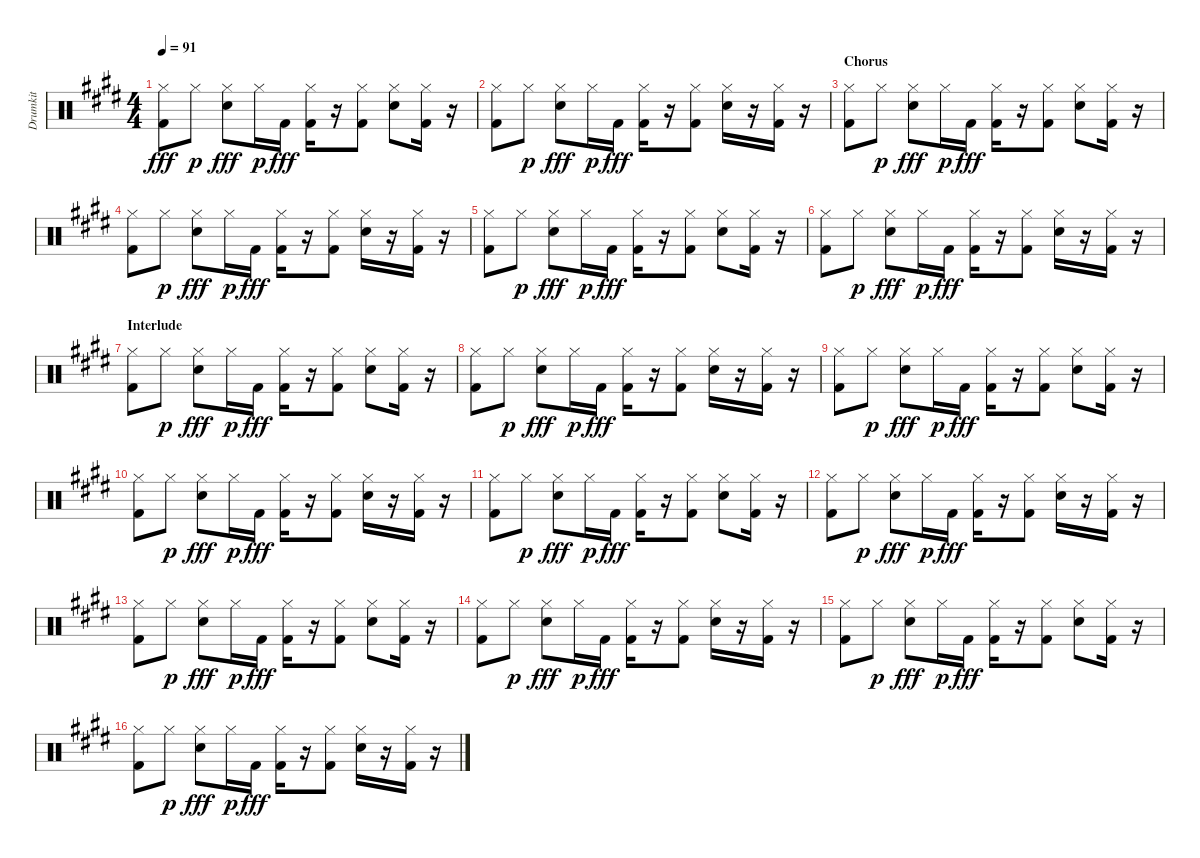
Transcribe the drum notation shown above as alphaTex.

\track ("Drumkit" "Drumkit") {instrument percussion}
\staff {score}
\articulation defaults
\ts (4 4)
\tempo 91
\clef neutral
\ks e
("Kick (hit) 2" "Hi-Hat (closed)").8{dy fff} "Hi-Hat (closed)".8{dy p} ("Snare (hit) 2" "Hi-Hat (closed)").8{dy fff} "Hi-Hat (closed)".16{dy p} "Kick (hit) 2".16{dy fff} ("Kick (hit) 2" "Hi-Hat (closed)").16 r.16 ("Kick (hit) 2" "Hi-Hat (closed)").8 ("Snare (hit) 2" "Hi-Hat (closed)").8 ("Kick (hit) 2" "Hi-Hat (closed)").16 r.16 |
("Kick (hit) 2" "Hi-Hat (closed)").8 "Hi-Hat (closed)".8{dy p} ("Snare (hit) 2" "Hi-Hat (closed)").8{dy fff} "Hi-Hat (closed)".16{dy p} "Kick (hit) 2".16{dy fff} ("Kick (hit) 2" "Hi-Hat (closed)").16 r.16 ("Kick (hit) 2" "Hi-Hat (closed)").8 ("Snare (hit) 2" "Hi-Hat (closed)").16 r.16 ("Kick (hit) 2" "Hi-Hat (closed)").16 r.16 |
\section ("" "Chorus")
("Kick (hit) 2" "Hi-Hat (closed)").8 "Hi-Hat (closed)".8{dy p} ("Snare (hit) 2" "Hi-Hat (closed)").8{dy fff} "Hi-Hat (closed)".16{dy p} "Kick (hit) 2".16{dy fff} ("Kick (hit) 2" "Hi-Hat (closed)").16 r.16 ("Kick (hit) 2" "Hi-Hat (closed)").8 ("Snare (hit) 2" "Hi-Hat (closed)").8 ("Kick (hit) 2" "Hi-Hat (closed)").16 r.16 |
("Kick (hit) 2" "Hi-Hat (closed)").8 "Hi-Hat (closed)".8{dy p} ("Snare (hit) 2" "Hi-Hat (closed)").8{dy fff} "Hi-Hat (closed)".16{dy p} "Kick (hit) 2".16{dy fff} ("Kick (hit) 2" "Hi-Hat (closed)").16 r.16 ("Kick (hit) 2" "Hi-Hat (closed)").8 ("Snare (hit) 2" "Hi-Hat (closed)").16 r.16 ("Kick (hit) 2" "Hi-Hat (closed)").16 r.16 |
("Kick (hit) 2" "Hi-Hat (closed)").8 "Hi-Hat (closed)".8{dy p} ("Snare (hit) 2" "Hi-Hat (closed)").8{dy fff} "Hi-Hat (closed)".16{dy p} "Kick (hit) 2".16{dy fff} ("Kick (hit) 2" "Hi-Hat (closed)").16 r.16 ("Kick (hit) 2" "Hi-Hat (closed)").8 ("Snare (hit) 2" "Hi-Hat (closed)").8 ("Kick (hit) 2" "Hi-Hat (closed)").16 r.16 |
("Kick (hit) 2" "Hi-Hat (closed)").8 "Hi-Hat (closed)".8{dy p} ("Snare (hit) 2" "Hi-Hat (closed)").8{dy fff} "Hi-Hat (closed)".16{dy p} "Kick (hit) 2".16{dy fff} ("Kick (hit) 2" "Hi-Hat (closed)").16 r.16 ("Kick (hit) 2" "Hi-Hat (closed)").8 ("Snare (hit) 2" "Hi-Hat (closed)").16 r.16 ("Kick (hit) 2" "Hi-Hat (closed)").16 r.16 |
\section ("" "Interlude")
("Kick (hit) 2" "Hi-Hat (closed)").8 "Hi-Hat (closed)".8{dy p} ("Snare (hit) 2" "Hi-Hat (closed)").8{dy fff} "Hi-Hat (closed)".16{dy p} "Kick (hit) 2".16{dy fff} ("Kick (hit) 2" "Hi-Hat (closed)").16 r.16 ("Kick (hit) 2" "Hi-Hat (closed)").8 ("Snare (hit) 2" "Hi-Hat (closed)").8 ("Kick (hit) 2" "Hi-Hat (closed)").16 r.16 |
("Kick (hit) 2" "Hi-Hat (closed)").8 "Hi-Hat (closed)".8{dy p} ("Snare (hit) 2" "Hi-Hat (closed)").8{dy fff} "Hi-Hat (closed)".16{dy p} "Kick (hit) 2".16{dy fff} ("Kick (hit) 2" "Hi-Hat (closed)").16 r.16 ("Kick (hit) 2" "Hi-Hat (closed)").8 ("Snare (hit) 2" "Hi-Hat (closed)").16 r.16 ("Kick (hit) 2" "Hi-Hat (closed)").16 r.16 |
("Kick (hit) 2" "Hi-Hat (closed)").8 "Hi-Hat (closed)".8{dy p} ("Snare (hit) 2" "Hi-Hat (closed)").8{dy fff} "Hi-Hat (closed)".16{dy p} "Kick (hit) 2".16{dy fff} ("Kick (hit) 2" "Hi-Hat (closed)").16 r.16 ("Kick (hit) 2" "Hi-Hat (closed)").8 ("Snare (hit) 2" "Hi-Hat (closed)").8 ("Kick (hit) 2" "Hi-Hat (closed)").16 r.16 |
("Kick (hit) 2" "Hi-Hat (closed)").8 "Hi-Hat (closed)".8{dy p} ("Snare (hit) 2" "Hi-Hat (closed)").8{dy fff} "Hi-Hat (closed)".16{dy p} "Kick (hit) 2".16{dy fff} ("Kick (hit) 2" "Hi-Hat (closed)").16 r.16 ("Kick (hit) 2" "Hi-Hat (closed)").8 ("Snare (hit) 2" "Hi-Hat (closed)").16 r.16 ("Kick (hit) 2" "Hi-Hat (closed)").16 r.16 |
("Kick (hit) 2" "Hi-Hat (closed)").8 "Hi-Hat (closed)".8{dy p} ("Snare (hit) 2" "Hi-Hat (closed)").8{dy fff} "Hi-Hat (closed)".16{dy p} "Kick (hit) 2".16{dy fff} ("Kick (hit) 2" "Hi-Hat (closed)").16 r.16 ("Kick (hit) 2" "Hi-Hat (closed)").8 ("Snare (hit) 2" "Hi-Hat (closed)").8 ("Kick (hit) 2" "Hi-Hat (closed)").16 r.16 |
("Kick (hit) 2" "Hi-Hat (closed)").8 "Hi-Hat (closed)".8{dy p} ("Snare (hit) 2" "Hi-Hat (closed)").8{dy fff} "Hi-Hat (closed)".16{dy p} "Kick (hit) 2".16{dy fff} ("Kick (hit) 2" "Hi-Hat (closed)").16 r.16 ("Kick (hit) 2" "Hi-Hat (closed)").8 ("Snare (hit) 2" "Hi-Hat (closed)").16 r.16 ("Kick (hit) 2" "Hi-Hat (closed)").16 r.16 |
("Kick (hit) 2" "Hi-Hat (closed)").8 "Hi-Hat (closed)".8{dy p} ("Snare (hit) 2" "Hi-Hat (closed)").8{dy fff} "Hi-Hat (closed)".16{dy p} "Kick (hit) 2".16{dy fff} ("Kick (hit) 2" "Hi-Hat (closed)").16 r.16 ("Kick (hit) 2" "Hi-Hat (closed)").8 ("Snare (hit) 2" "Hi-Hat (closed)").8 ("Kick (hit) 2" "Hi-Hat (closed)").16 r.16 |
("Kick (hit) 2" "Hi-Hat (closed)").8 "Hi-Hat (closed)".8{dy p} ("Snare (hit) 2" "Hi-Hat (closed)").8{dy fff} "Hi-Hat (closed)".16{dy p} "Kick (hit) 2".16{dy fff} ("Kick (hit) 2" "Hi-Hat (closed)").16 r.16 ("Kick (hit) 2" "Hi-Hat (closed)").8 ("Snare (hit) 2" "Hi-Hat (closed)").16 r.16 ("Kick (hit) 2" "Hi-Hat (closed)").16 r.16 |
("Kick (hit) 2" "Hi-Hat (closed)").8 "Hi-Hat (closed)".8{dy p} ("Snare (hit) 2" "Hi-Hat (closed)").8{dy fff} "Hi-Hat (closed)".16{dy p} "Kick (hit) 2".16{dy fff} ("Kick (hit) 2" "Hi-Hat (closed)").16 r.16 ("Kick (hit) 2" "Hi-Hat (closed)").8 ("Snare (hit) 2" "Hi-Hat (closed)").8 ("Kick (hit) 2" "Hi-Hat (closed)").16 r.16 |
("Kick (hit) 2" "Hi-Hat (closed)").8 "Hi-Hat (closed)".8{dy p} ("Snare (hit) 2" "Hi-Hat (closed)").8{dy fff} "Hi-Hat (closed)".16{dy p} "Kick (hit) 2".16{dy fff} ("Kick (hit) 2" "Hi-Hat (closed)").16 r.16 ("Kick (hit) 2" "Hi-Hat (closed)").8 ("Snare (hit) 2" "Hi-Hat (closed)").16 r.16 ("Kick (hit) 2" "Hi-Hat (closed)").16 r.16
